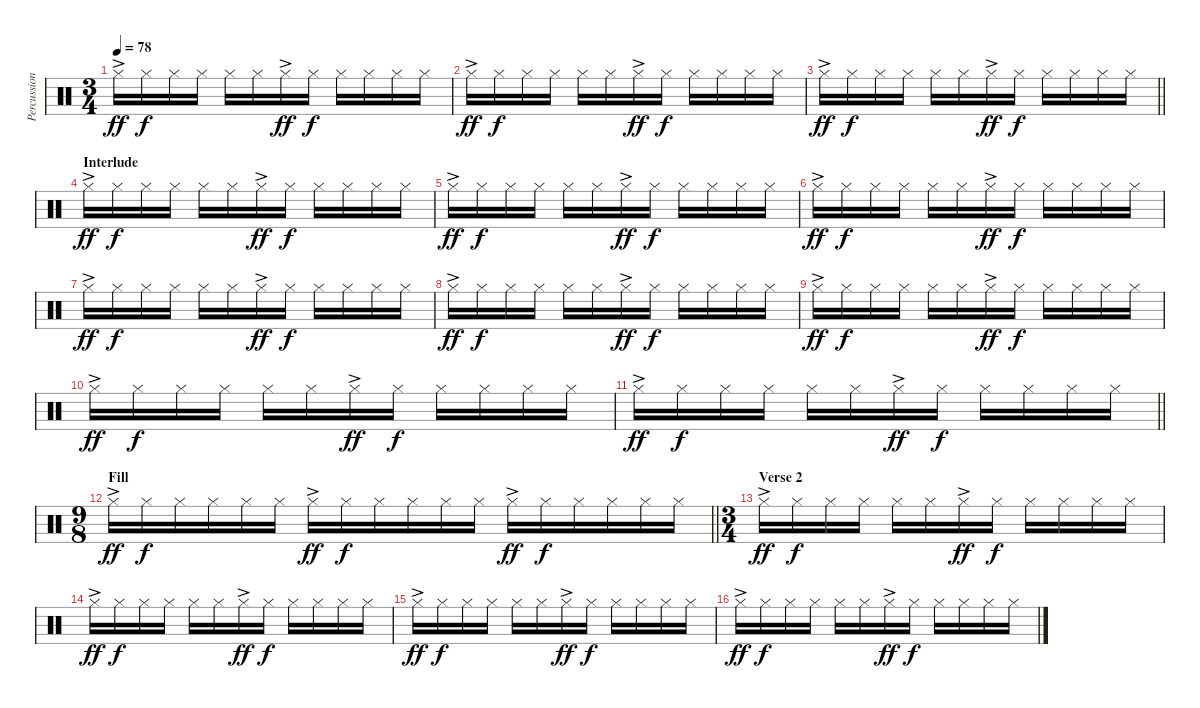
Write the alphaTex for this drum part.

\track ("Percussion" "Percussion") {instrument percussion}
\staff {score}
\articulation defaults
\ts (3 4)
\tempo 78
\clef neutral
\ks c "Hi-Hat (closed)"{ac}.16{dy ff} "Hi-Hat (closed)".16{dy f} "Hi-Hat (closed)".16 "Hi-Hat (closed)".16 "Hi-Hat (closed)".16 "Hi-Hat (closed)".16 "Hi-Hat (closed)"{ac}.16{dy ff} "Hi-Hat (closed)".16{dy f} "Hi-Hat (closed)".16 "Hi-Hat (closed)".16 "Hi-Hat (closed)".16 "Hi-Hat (closed)".16
|
"Hi-Hat (closed)"{ac}.16{dy ff} "Hi-Hat (closed)".16{dy f} "Hi-Hat (closed)".16 "Hi-Hat (closed)".16 "Hi-Hat (closed)".16 "Hi-Hat (closed)".16 "Hi-Hat (closed)"{ac}.16{dy ff} "Hi-Hat (closed)".16{dy f} "Hi-Hat (closed)".16 "Hi-Hat (closed)".16 "Hi-Hat (closed)".16 "Hi-Hat (closed)".16 |
\barLineRight lightlight "Hi-Hat (closed)"{ac}.16{dy ff} "Hi-Hat (closed)".16{dy f} "Hi-Hat (closed)".16 "Hi-Hat (closed)".16 "Hi-Hat (closed)".16 "Hi-Hat (closed)".16 "Hi-Hat (closed)"{ac}.16{dy ff} "Hi-Hat (closed)".16{dy f} "Hi-Hat (closed)".16 "Hi-Hat (closed)".16 "Hi-Hat (closed)".16 "Hi-Hat (closed)".16
|
\section ("" "Interlude")
"Hi-Hat (closed)"{ac}.16{dy ff} "Hi-Hat (closed)".16{dy f} "Hi-Hat (closed)".16 "Hi-Hat (closed)".16 "Hi-Hat (closed)".16 "Hi-Hat (closed)".16 "Hi-Hat (closed)"{ac}.16{dy ff} "Hi-Hat (closed)".16{dy f} "Hi-Hat (closed)".16 "Hi-Hat (closed)".16 "Hi-Hat (closed)".16 "Hi-Hat (closed)".16 |
"Hi-Hat (closed)"{ac}.16{dy ff} "Hi-Hat (closed)".16{dy f} "Hi-Hat (closed)".16 "Hi-Hat (closed)".16 "Hi-Hat (closed)".16 "Hi-Hat (closed)".16 "Hi-Hat (closed)"{ac}.16{dy ff} "Hi-Hat (closed)".16{dy f} "Hi-Hat (closed)".16 "Hi-Hat (closed)".16 "Hi-Hat (closed)".16 "Hi-Hat (closed)".16 |
"Hi-Hat (closed)"{ac}.16{dy ff} "Hi-Hat (closed)".16{dy f} "Hi-Hat (closed)".16 "Hi-Hat (closed)".16 "Hi-Hat (closed)".16 "Hi-Hat (closed)".16 "Hi-Hat (closed)"{ac}.16{dy ff} "Hi-Hat (closed)".16{dy f} "Hi-Hat (closed)".16 "Hi-Hat (closed)".16 "Hi-Hat (closed)".16 "Hi-Hat (closed)".16 |
"Hi-Hat (closed)"{ac}.16{dy ff} "Hi-Hat (closed)".16{dy f} "Hi-Hat (closed)".16 "Hi-Hat (closed)".16 "Hi-Hat (closed)".16 "Hi-Hat (closed)".16 "Hi-Hat (closed)"{ac}.16{dy ff} "Hi-Hat (closed)".16{dy f} "Hi-Hat (closed)".16 "Hi-Hat (closed)".16 "Hi-Hat (closed)".16 "Hi-Hat (closed)".16 |
"Hi-Hat (closed)"{ac}.16{dy ff} "Hi-Hat (closed)".16{dy f} "Hi-Hat (closed)".16 "Hi-Hat (closed)".16 "Hi-Hat (closed)".16 "Hi-Hat (closed)".16 "Hi-Hat (closed)"{ac}.16{dy ff} "Hi-Hat (closed)".16{dy f} "Hi-Hat (closed)".16 "Hi-Hat (closed)".16 "Hi-Hat (closed)".16 "Hi-Hat (closed)".16 |
"Hi-Hat (closed)"{ac}.16{dy ff} "Hi-Hat (closed)".16{dy f} "Hi-Hat (closed)".16 "Hi-Hat (closed)".16 "Hi-Hat (closed)".16 "Hi-Hat (closed)".16 "Hi-Hat (closed)"{ac}.16{dy ff} "Hi-Hat (closed)".16{dy f} "Hi-Hat (closed)".16 "Hi-Hat (closed)".16 "Hi-Hat (closed)".16 "Hi-Hat (closed)".16 |
"Hi-Hat (closed)"{ac}.16{dy ff} "Hi-Hat (closed)".16{dy f} "Hi-Hat (closed)".16 "Hi-Hat (closed)".16 "Hi-Hat (closed)".16 "Hi-Hat (closed)".16 "Hi-Hat (closed)"{ac}.16{dy ff} "Hi-Hat (closed)".16{dy f} "Hi-Hat (closed)".16 "Hi-Hat (closed)".16 "Hi-Hat (closed)".16 "Hi-Hat (closed)".16 |
\barLineRight lightlight "Hi-Hat (closed)"{ac}.16{dy ff} "Hi-Hat (closed)".16{dy f} "Hi-Hat (closed)".16 "Hi-Hat (closed)".16 "Hi-Hat (closed)".16 "Hi-Hat (closed)".16 "Hi-Hat (closed)"{ac}.16{dy ff} "Hi-Hat (closed)".16{dy f} "Hi-Hat (closed)".16 "Hi-Hat (closed)".16 "Hi-Hat (closed)".16 "Hi-Hat (closed)".16
|
\ts (9 8)
\section ("" "Fill")
\barLineRight lightlight "Hi-Hat (closed)"{ac}.16{dy ff} "Hi-Hat (closed)".16{dy f} "Hi-Hat (closed)".16 "Hi-Hat (closed)".16 "Hi-Hat (closed)".16 "Hi-Hat (closed)".16 "Hi-Hat (closed)"{ac}.16{dy ff} "Hi-Hat (closed)".16{dy f} "Hi-Hat (closed)".16 "Hi-Hat (closed)".16 "Hi-Hat (closed)".16 "Hi-Hat (closed)".16 "Hi-Hat (closed)"{ac}.16{dy ff} "Hi-Hat (closed)".16{dy f} "Hi-Hat (closed)".16 "Hi-Hat (closed)".16 "Hi-Hat (closed)".16 "Hi-Hat (closed)".16
|
\ts (3 4)
\section ("" "Verse 2")
"Hi-Hat (closed)"{ac}.16{dy ff} "Hi-Hat (closed)".16{dy f} "Hi-Hat (closed)".16 "Hi-Hat (closed)".16 "Hi-Hat (closed)".16 "Hi-Hat (closed)".16 "Hi-Hat (closed)"{ac}.16{dy ff} "Hi-Hat (closed)".16{dy f} "Hi-Hat (closed)".16 "Hi-Hat (closed)".16 "Hi-Hat (closed)".16 "Hi-Hat (closed)".16 |
"Hi-Hat (closed)"{ac}.16{dy ff} "Hi-Hat (closed)".16{dy f} "Hi-Hat (closed)".16 "Hi-Hat (closed)".16 "Hi-Hat (closed)".16 "Hi-Hat (closed)".16 "Hi-Hat (closed)"{ac}.16{dy ff} "Hi-Hat (closed)".16{dy f} "Hi-Hat (closed)".16 "Hi-Hat (closed)".16 "Hi-Hat (closed)".16 "Hi-Hat (closed)".16 |
"Hi-Hat (closed)"{ac}.16{dy ff} "Hi-Hat (closed)".16{dy f} "Hi-Hat (closed)".16 "Hi-Hat (closed)".16 "Hi-Hat (closed)".16 "Hi-Hat (closed)".16 "Hi-Hat (closed)"{ac}.16{dy ff} "Hi-Hat (closed)".16{dy f} "Hi-Hat (closed)".16 "Hi-Hat (closed)".16 "Hi-Hat (closed)".16 "Hi-Hat (closed)".16 |
"Hi-Hat (closed)"{ac}.16{dy ff} "Hi-Hat (closed)".16{dy f} "Hi-Hat (closed)".16 "Hi-Hat (closed)".16 "Hi-Hat (closed)".16 "Hi-Hat (closed)".16 "Hi-Hat (closed)"{ac}.16{dy ff} "Hi-Hat (closed)".16{dy f} "Hi-Hat (closed)".16 "Hi-Hat (closed)".16 "Hi-Hat (closed)".16 "Hi-Hat (closed)".16
